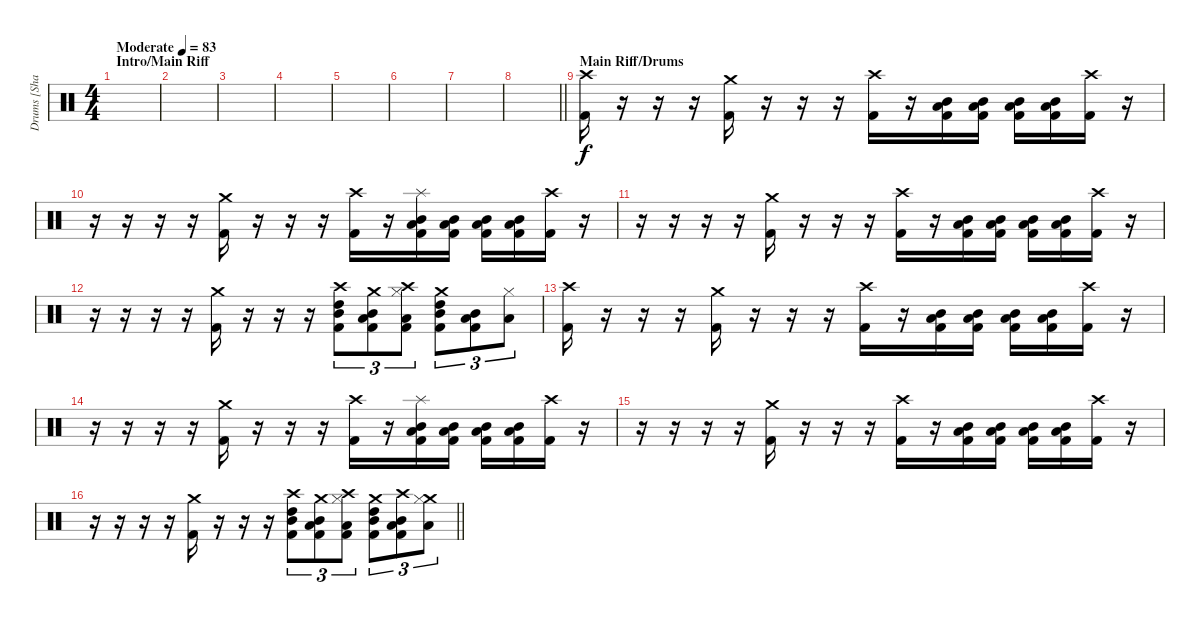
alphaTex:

\track ("Drums [Shawn Drover]" "Drums [Sha") {instrument percussion}
\staff {score}
\articulation defaults
\ts (4 4)
\section ("" "Intro/Main Riff")
\tempo (83 "Moderate")
\clef neutral
\ks c
|
|
|
|
|
|
|
\barLineRight lightlight
|
\section ("" "Main Riff/Drums")
("Crash high (hit)" "Kick (hit) 2").16 r.16 r.16 r.16 ("Crash medium (hit)" "Kick (hit) 2").16 r.16 r.16 r.16 ("Crash high (hit)" "Kick (hit) 2").16 r.16 ("Mid Tom (hit)" "Low Tom (hit)" "Kick (hit) 2").16 ("Mid Tom (hit)" "Low Tom (hit)" "Kick (hit) 2").16 ("Mid Tom (hit)" "Low Tom (hit)" "Kick (hit) 2").16 ("Mid Tom (hit)" "Low Tom (hit)" "Kick (hit) 2").16 ("Crash high (hit)" "Kick (hit) 2").16 r.16 |
r.16 r.16 r.16 r.16 ("Crash medium (hit)" "Kick (hit) 2").16 r.16 r.16 r.16 ("Crash high (hit)" "Kick (hit) 2").16 r.16 ("Splash (hit)" "Mid Tom (hit)" "Low Tom (hit)" "Kick (hit) 2").16 ("Mid Tom (hit)" "Low Tom (hit)" "Kick (hit) 2").16 ("Mid Tom (hit)" "Low Tom (hit)" "Kick (hit) 2").16 ("Mid Tom (hit)" "Low Tom (hit)" "Kick (hit) 2").16 ("Crash high (hit)" "Kick (hit) 2").16 r.16 |
r.16 r.16 r.16 r.16 ("Crash medium (hit)" "Kick (hit) 2").16 r.16 r.16 r.16 ("Crash high (hit)" "Kick (hit) 2").16 r.16 ("Mid Tom (hit)" "Low Tom (hit)" "Kick (hit) 2").16 ("Mid Tom (hit)" "Low Tom (hit)" "Kick (hit) 2").16 ("Mid Tom (hit)" "Low Tom (hit)" "Kick (hit) 2").16 ("Mid Tom (hit)" "Low Tom (hit)" "Kick (hit) 2").16 ("Crash high (hit)" "Kick (hit) 2").16 r.16 |
r.16 r.16 r.16 r.16 ("Crash medium (hit)" "Kick (hit) 2").16 r.16 r.16 r.16 ("Crash high (hit)" "High Tom (hit)" "Mid Tom (hit)" "Kick (hit) 2").8{tu (3 2)} ("Crash medium (hit)" "Mid Tom (hit)" "Low Tom (hit)" "Kick (hit) 2").8{tu (3 2)} ("Crash high (hit)" "Low Tom (hit)" "Hi-Hat (closed)" "Kick (hit) 2").8{tu (3 2)} ("Crash medium (hit)" "High Tom (hit)" "Mid Tom (hit)" "Kick (hit) 2").8{tu (3 2)} ("Mid Tom (hit)" "Low Tom (hit)" "Kick (hit) 2").8{tu (3 2)} ("Low Tom (hit)" "Hi-Hat (closed)").8{tu (3 2)} |
("Crash high (hit)" "Kick (hit) 2").16 r.16 r.16 r.16 ("Crash medium (hit)" "Kick (hit) 2").16 r.16 r.16 r.16 ("Crash high (hit)" "Kick (hit) 2").16 r.16 ("Mid Tom (hit)" "Low Tom (hit)" "Kick (hit) 2").16 ("Mid Tom (hit)" "Low Tom (hit)" "Kick (hit) 2").16 ("Mid Tom (hit)" "Low Tom (hit)" "Kick (hit) 2").16 ("Mid Tom (hit)" "Low Tom (hit)" "Kick (hit) 2").16 ("Crash high (hit)" "Kick (hit) 2").16 r.16 |
r.16 r.16 r.16 r.16 ("Crash medium (hit)" "Kick (hit) 2").16 r.16 r.16 r.16 ("Crash high (hit)" "Kick (hit) 2").16 r.16 ("Splash (hit)" "Mid Tom (hit)" "Low Tom (hit)" "Kick (hit) 2").16 ("Mid Tom (hit)" "Low Tom (hit)" "Kick (hit) 2").16 ("Mid Tom (hit)" "Low Tom (hit)" "Kick (hit) 2").16 ("Mid Tom (hit)" "Low Tom (hit)" "Kick (hit) 2").16 ("Crash high (hit)" "Kick (hit) 2").16 r.16 |
r.16 r.16 r.16 r.16 ("Crash medium (hit)" "Kick (hit) 2").16 r.16 r.16 r.16 ("Crash high (hit)" "Kick (hit) 2").16 r.16 ("Mid Tom (hit)" "Low Tom (hit)" "Kick (hit) 2").16 ("Mid Tom (hit)" "Low Tom (hit)" "Kick (hit) 2").16 ("Mid Tom (hit)" "Low Tom (hit)" "Kick (hit) 2").16 ("Mid Tom (hit)" "Low Tom (hit)" "Kick (hit) 2").16 ("Crash high (hit)" "Kick (hit) 2").16 r.16 |
\barLineRight lightlight
r.16 r.16 r.16 r.16 ("Crash medium (hit)" "Kick (hit) 2").16 r.16 r.16 r.16 ("Crash high (hit)" "High Tom (hit)" "Mid Tom (hit)" "Kick (hit) 2").8{tu (3 2)} ("Crash medium (hit)" "Mid Tom (hit)" "Low Tom (hit)" "Kick (hit) 2").8{tu (3 2)} ("Crash high (hit)" "Low Tom (hit)" "Hi-Hat (closed)" "Kick (hit) 2").8{tu (3 2)} ("Crash medium (hit)" "High Tom (hit)" "Mid Tom (hit)" "Kick (hit) 2").8{tu (3 2)} ("Crash high (hit)" "Mid Tom (hit)" "Low Tom (hit)" "Kick (hit) 2").8{tu (3 2)} ("Crash medium (hit)" "Low Tom (hit)" "Hi-Hat (closed)").8{tu (3 2)}
